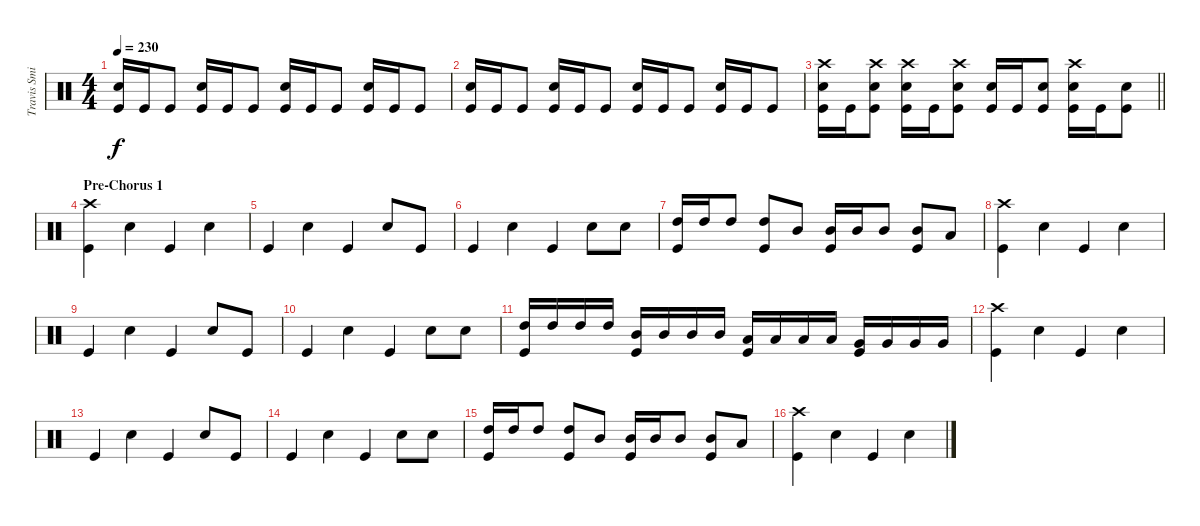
\track ("Travis Smith" "Travis Smi") {instrument percussion}
\staff {score}
\articulation defaults
\ts (4 4)
\tempo 230
\clef neutral
\ks c
("Snare (hit) 2" "Kick (hit)").16{dy f} "Kick (hit)".16 "Kick (hit)".8 ("Snare (hit) 2" "Kick (hit)").16 "Kick (hit)".16 "Kick (hit)".8 ("Snare (hit) 2" "Kick (hit)").16 "Kick (hit)".16 "Kick (hit)".8 ("Snare (hit) 2" "Kick (hit)").16 "Kick (hit)".16 "Kick (hit)".8 |
("Snare (hit) 2" "Kick (hit)").16 "Kick (hit)".16 "Kick (hit)".8 ("Snare (hit) 2" "Kick (hit)").16 "Kick (hit)".16 "Kick (hit)".8 ("Snare (hit) 2" "Kick (hit)").16 "Kick (hit)".16 "Kick (hit)".8 ("Snare (hit) 2" "Kick (hit)").16 "Kick (hit)".16 "Kick (hit)".8 |
\barLineRight lightlight
("Crash high (hit)" "Snare (hit) 2" "Kick (hit)").16 "Kick (hit)".16 ("Crash high (hit)" "Snare (hit) 2" "Kick (hit)").8 ("Crash high (hit)" "Snare (hit) 2" "Kick (hit)").16 "Kick (hit)".16 ("Crash high (hit)" "Snare (hit) 2" "Kick (hit)").8 ("Snare (hit) 2" "Kick (hit)").16 "Kick (hit)".16 ("Snare (hit) 2" "Kick (hit)").8 ("Crash high (hit)" "Snare (hit) 2" "Kick (hit)").16 "Kick (hit)".16 ("Snare (hit) 2" "Kick (hit)").8 |
\section ("" "Pre-Chorus 1")
("Crash high (hit)" "Kick (hit)").4 "Snare (hit) 2".4 "Kick (hit)".4 "Snare (hit) 2".4 |
"Kick (hit)".4 "Snare (hit) 2".4 "Kick (hit)".4 "Snare (hit) 2".8 "Kick (hit)".8 |
"Kick (hit)".4 "Snare (hit) 2".4 "Kick (hit)".4 "Snare (hit) 2".8 "Snare (hit) 2".8 |
("High Tom (hit)" "Kick (hit)").16 "High Tom (hit)".16 "High Tom (hit)".8 ("High Tom (hit)" "Kick (hit)").8 "Mid Tom (hit)".8 ("Mid Tom (hit)" "Kick (hit)").16 "Mid Tom (hit)".16 "Mid Tom (hit)".8 ("Mid Tom (hit)" "Kick (hit)").8 "Low Tom (hit)".8 |
("Crash high (hit)" "Kick (hit)").4 "Snare (hit) 2".4 "Kick (hit)".4 "Snare (hit) 2".4 |
"Kick (hit)".4 "Snare (hit) 2".4 "Kick (hit)".4 "Snare (hit) 2".8 "Kick (hit)".8 |
"Kick (hit)".4 "Snare (hit) 2".4 "Kick (hit)".4 "Snare (hit) 2".8 "Snare (hit) 2".8 |
("High Tom (hit)" "Kick (hit)").16 "High Tom (hit)".16 "High Tom (hit)".16 "High Tom (hit)".16 ("Mid Tom (hit)" "Kick (hit)").16 "Mid Tom (hit)".16 "Mid Tom (hit)".16 "Mid Tom (hit)".16 ("Low Tom (hit)" "Kick (hit)").16 "Low Tom (hit)".16 "Low Tom (hit)".16 "Low Tom (hit)".16 ("Very Low Tom (hit)" "Kick (hit)").16 "Very Low Tom (hit)".16 "Very Low Tom (hit)".16 "Very Low Tom (hit)".16 |
("Crash high (hit)" "Kick (hit)").4 "Snare (hit) 2".4 "Kick (hit)".4 "Snare (hit) 2".4 |
"Kick (hit)".4 "Snare (hit) 2".4 "Kick (hit)".4 "Snare (hit) 2".8 "Kick (hit)".8 |
"Kick (hit)".4 "Snare (hit) 2".4 "Kick (hit)".4 "Snare (hit) 2".8 "Snare (hit) 2".8 |
("High Tom (hit)" "Kick (hit)").16 "High Tom (hit)".16 "High Tom (hit)".8 ("High Tom (hit)" "Kick (hit)").8 "Mid Tom (hit)".8 ("Mid Tom (hit)" "Kick (hit)").16 "Mid Tom (hit)".16 "Mid Tom (hit)".8 ("Mid Tom (hit)" "Kick (hit)").8 "Low Tom (hit)".8 |
("Crash high (hit)" "Kick (hit)").4 "Snare (hit) 2".4 "Kick (hit)".4 "Snare (hit) 2".4
